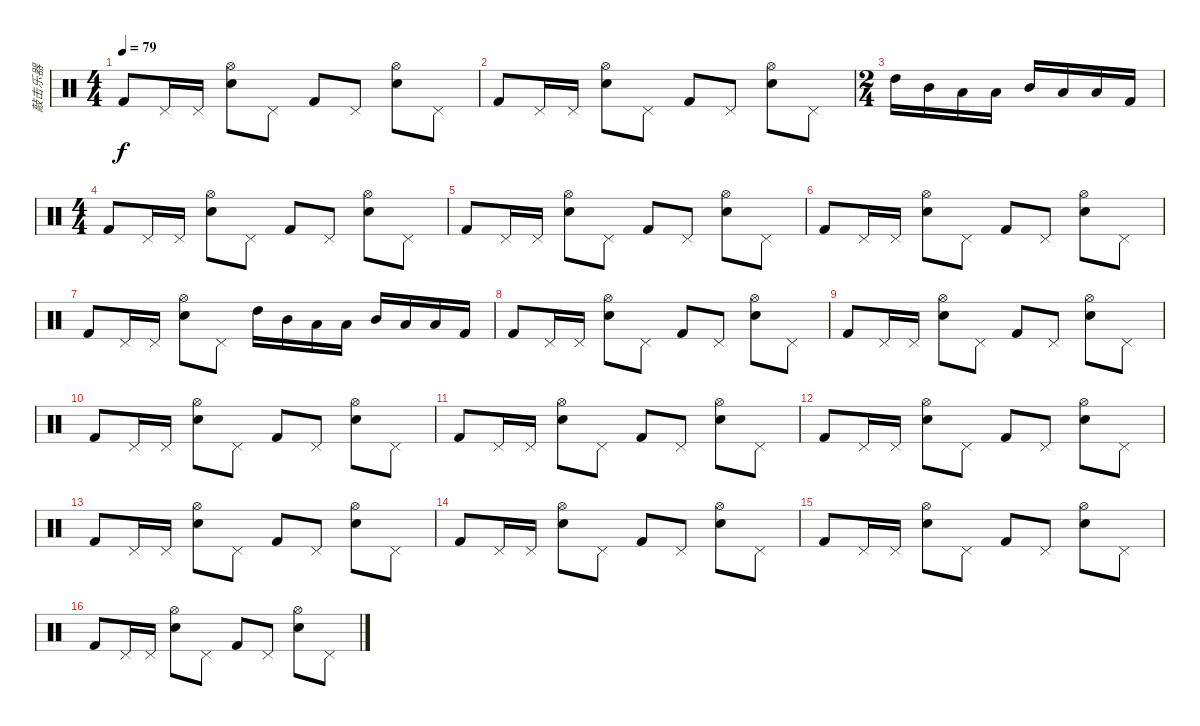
\track ("敲击乐器" "敲击乐器") {instrument percussion}
\staff {score}
\articulation defaults
\ts (4 4)
\tempo 79
\clef neutral
\ks c "Kick (hit) 2".8{dy f} "Pedal Hi-Hat (hit)".16 "Pedal Hi-Hat (hit)".16
("Hi-Hat (open)" "Electric Snare (hit)").8 "Pedal Hi-Hat (hit)".8 "Kick (hit) 2".8 "Pedal Hi-Hat (hit)".8 ("Hi-Hat (open)" "Electric Snare (hit)").8 "Pedal Hi-Hat (hit)".8 |
"Kick (hit) 2".8 "Pedal Hi-Hat (hit)".16 "Pedal Hi-Hat (hit)".16 ("Hi-Hat (open)" "Electric Snare (hit)").8 "Pedal Hi-Hat (hit)".8 "Kick (hit) 2".8 "Pedal Hi-Hat (hit)".8 ("Hi-Hat (open)" "Electric Snare (hit)").8 "Pedal Hi-Hat (hit)".8 |
\ts (2 4)
"High Tom (hit)".16 "Mid Tom (hit)".16 "Low Tom (hit)".16 "Low Floor Tom (hit)".16 "Mid Tom (hit)".16 "Low Tom (hit)".16 "Low Floor Tom (hit)".16 "Kick (hit) 2".16 |
\ts (4 4)
"Kick (hit) 2".8 "Pedal Hi-Hat (hit)".16 "Pedal Hi-Hat (hit)".16 ("Hi-Hat (open)" "Electric Snare (hit)").8 "Pedal Hi-Hat (hit)".8 "Kick (hit) 2".8 "Pedal Hi-Hat (hit)".8 ("Hi-Hat (open)" "Electric Snare (hit)").8 "Pedal Hi-Hat (hit)".8 |
"Kick (hit) 2".8 "Pedal Hi-Hat (hit)".16 "Pedal Hi-Hat (hit)".16 ("Hi-Hat (open)" "Electric Snare (hit)").8 "Pedal Hi-Hat (hit)".8 "Kick (hit) 2".8 "Pedal Hi-Hat (hit)".8 ("Hi-Hat (open)" "Electric Snare (hit)").8 "Pedal Hi-Hat (hit)".8 |
"Kick (hit) 2".8 "Pedal Hi-Hat (hit)".16 "Pedal Hi-Hat (hit)".16 ("Hi-Hat (open)" "Electric Snare (hit)").8 "Pedal Hi-Hat (hit)".8 "Kick (hit) 2".8 "Pedal Hi-Hat (hit)".8 ("Hi-Hat (open)" "Electric Snare (hit)").8 "Pedal Hi-Hat (hit)".8 |
"Kick (hit) 2".8 "Pedal Hi-Hat (hit)".16 "Pedal Hi-Hat (hit)".16 ("Hi-Hat (open)" "Electric Snare (hit)").8 "Pedal Hi-Hat (hit)".8 "High Tom (hit)".16 "Mid Tom (hit)".16 "Low Tom (hit)".16 "Low Floor Tom (hit)".16 "Mid Tom (hit)".16 "Low Tom (hit)".16 "Low Floor Tom (hit)".16 "Kick (hit) 2".16 |
"Kick (hit) 2".8 "Pedal Hi-Hat (hit)".16 "Pedal Hi-Hat (hit)".16 ("Hi-Hat (open)" "Electric Snare (hit)").8 "Pedal Hi-Hat (hit)".8 "Kick (hit) 2".8 "Pedal Hi-Hat (hit)".8 ("Hi-Hat (open)" "Electric Snare (hit)").8 "Pedal Hi-Hat (hit)".8 |
"Kick (hit) 2".8 "Pedal Hi-Hat (hit)".16 "Pedal Hi-Hat (hit)".16 ("Hi-Hat (open)" "Electric Snare (hit)").8 "Pedal Hi-Hat (hit)".8 "Kick (hit) 2".8 "Pedal Hi-Hat (hit)".8 ("Hi-Hat (open)" "Electric Snare (hit)").8 "Pedal Hi-Hat (hit)".8 |
"Kick (hit) 2".8 "Pedal Hi-Hat (hit)".16 "Pedal Hi-Hat (hit)".16 ("Hi-Hat (open)" "Electric Snare (hit)").8 "Pedal Hi-Hat (hit)".8 "Kick (hit) 2".8 "Pedal Hi-Hat (hit)".8 ("Hi-Hat (open)" "Electric Snare (hit)").8 "Pedal Hi-Hat (hit)".8 |
"Kick (hit) 2".8 "Pedal Hi-Hat (hit)".16 "Pedal Hi-Hat (hit)".16 ("Hi-Hat (open)" "Electric Snare (hit)").8 "Pedal Hi-Hat (hit)".8 "Kick (hit) 2".8 "Pedal Hi-Hat (hit)".8 ("Hi-Hat (open)" "Electric Snare (hit)").8 "Pedal Hi-Hat (hit)".8 |
"Kick (hit) 2".8 "Pedal Hi-Hat (hit)".16 "Pedal Hi-Hat (hit)".16 ("Hi-Hat (open)" "Electric Snare (hit)").8 "Pedal Hi-Hat (hit)".8 "Kick (hit) 2".8 "Pedal Hi-Hat (hit)".8 ("Hi-Hat (open)" "Electric Snare (hit)").8 "Pedal Hi-Hat (hit)".8 |
"Kick (hit) 2".8 "Pedal Hi-Hat (hit)".16 "Pedal Hi-Hat (hit)".16 ("Hi-Hat (open)" "Electric Snare (hit)").8 "Pedal Hi-Hat (hit)".8 "Kick (hit) 2".8 "Pedal Hi-Hat (hit)".8 ("Hi-Hat (open)" "Electric Snare (hit)").8 "Pedal Hi-Hat (hit)".8 |
"Kick (hit) 2".8 "Pedal Hi-Hat (hit)".16 "Pedal Hi-Hat (hit)".16 ("Hi-Hat (open)" "Electric Snare (hit)").8 "Pedal Hi-Hat (hit)".8 "Kick (hit) 2".8 "Pedal Hi-Hat (hit)".8 ("Hi-Hat (open)" "Electric Snare (hit)").8 "Pedal Hi-Hat (hit)".8 |
"Kick (hit) 2".8 "Pedal Hi-Hat (hit)".16 "Pedal Hi-Hat (hit)".16 ("Hi-Hat (open)" "Electric Snare (hit)").8 "Pedal Hi-Hat (hit)".8 "Kick (hit) 2".8 "Pedal Hi-Hat (hit)".8 ("Hi-Hat (open)" "Electric Snare (hit)").8 "Pedal Hi-Hat (hit)".8 |
"Kick (hit) 2".8 "Pedal Hi-Hat (hit)".16 "Pedal Hi-Hat (hit)".16 ("Hi-Hat (open)" "Electric Snare (hit)").8 "Pedal Hi-Hat (hit)".8 "Kick (hit) 2".8 "Pedal Hi-Hat (hit)".8 ("Hi-Hat (open)" "Electric Snare (hit)").8 "Pedal Hi-Hat (hit)".8
